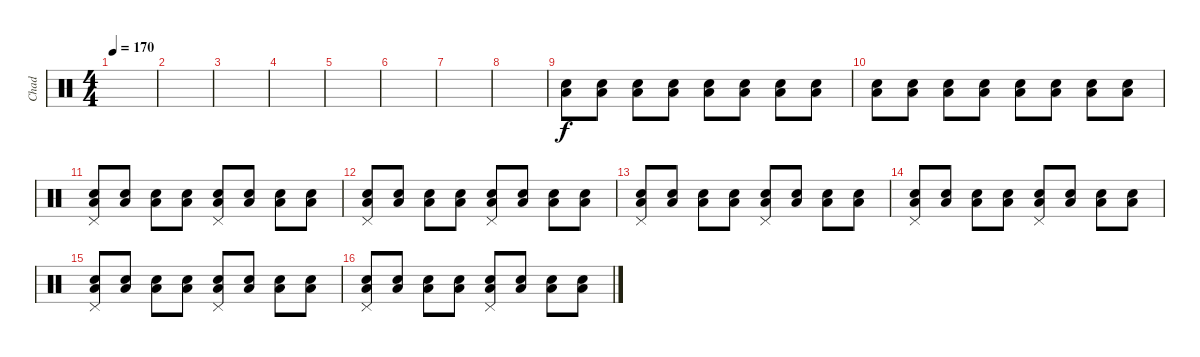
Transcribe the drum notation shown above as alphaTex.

\track ("Chad" "Chad") {instrument percussion}
\staff {score}
\articulation defaults
\ts (4 4)
\tempo 170
\clef neutral
\ks c
|
|
|
|
|
|
|
|
("Snare (hit) 2" "Low Tom (hit)").8{volume 4} ("Snare (hit) 2" "Low Tom (hit)").8 ("Snare (hit) 2" "Low Tom (hit)").8 ("Snare (hit) 2" "Low Tom (hit)").8 ("Snare (hit) 2" "Low Tom (hit)").8 ("Snare (hit) 2" "Low Tom (hit)").8 ("Snare (hit) 2" "Low Tom (hit)").8 ("Snare (hit) 2" "Low Tom (hit)").8 |
("Snare (hit) 2" "Low Tom (hit)").8 ("Snare (hit) 2" "Low Tom (hit)").8 ("Snare (hit) 2" "Low Tom (hit)").8 ("Snare (hit) 2" "Low Tom (hit)").8 ("Snare (hit) 2" "Low Tom (hit)").8 ("Snare (hit) 2" "Low Tom (hit)").8 ("Snare (hit) 2" "Low Tom (hit)").8 ("Snare (hit) 2" "Low Tom (hit)").8 |
("Pedal Hi-Hat (hit)" "Snare (hit) 2" "Low Tom (hit)").8 ("Snare (hit) 2" "Low Tom (hit)").8 ("Snare (hit) 2" "Low Tom (hit)").8 ("Snare (hit) 2" "Low Tom (hit)").8 ("Pedal Hi-Hat (hit)" "Snare (hit) 2" "Low Tom (hit)").8 ("Snare (hit) 2" "Low Tom (hit)").8 ("Snare (hit) 2" "Low Tom (hit)").8 ("Snare (hit) 2" "Low Tom (hit)").8 |
("Pedal Hi-Hat (hit)" "Snare (hit) 2" "Low Tom (hit)").8 ("Snare (hit) 2" "Low Tom (hit)").8 ("Snare (hit) 2" "Low Tom (hit)").8 ("Snare (hit) 2" "Low Tom (hit)").8 ("Pedal Hi-Hat (hit)" "Snare (hit) 2" "Low Tom (hit)").8 ("Snare (hit) 2" "Low Tom (hit)").8 ("Snare (hit) 2" "Low Tom (hit)").8 ("Snare (hit) 2" "Low Tom (hit)").8 |
("Pedal Hi-Hat (hit)" "Snare (hit) 2" "Low Tom (hit)").8 ("Snare (hit) 2" "Low Tom (hit)").8 ("Snare (hit) 2" "Low Tom (hit)").8 ("Snare (hit) 2" "Low Tom (hit)").8 ("Pedal Hi-Hat (hit)" "Snare (hit) 2" "Low Tom (hit)").8 ("Snare (hit) 2" "Low Tom (hit)").8 ("Snare (hit) 2" "Low Tom (hit)").8 ("Snare (hit) 2" "Low Tom (hit)").8 |
("Pedal Hi-Hat (hit)" "Snare (hit) 2" "Low Tom (hit)").8 ("Snare (hit) 2" "Low Tom (hit)").8 ("Snare (hit) 2" "Low Tom (hit)").8 ("Snare (hit) 2" "Low Tom (hit)").8 ("Pedal Hi-Hat (hit)" "Snare (hit) 2" "Low Tom (hit)").8 ("Snare (hit) 2" "Low Tom (hit)").8 ("Snare (hit) 2" "Low Tom (hit)").8 ("Snare (hit) 2" "Low Tom (hit)").8 |
("Pedal Hi-Hat (hit)" "Snare (hit) 2" "Low Tom (hit)").8 ("Snare (hit) 2" "Low Tom (hit)").8 ("Snare (hit) 2" "Low Tom (hit)").8 ("Snare (hit) 2" "Low Tom (hit)").8 ("Pedal Hi-Hat (hit)" "Snare (hit) 2" "Low Tom (hit)").8 ("Snare (hit) 2" "Low Tom (hit)").8 ("Snare (hit) 2" "Low Tom (hit)").8 ("Snare (hit) 2" "Low Tom (hit)").8 |
("Pedal Hi-Hat (hit)" "Snare (hit) 2" "Low Tom (hit)").8 ("Snare (hit) 2" "Low Tom (hit)").8 ("Snare (hit) 2" "Low Tom (hit)").8 ("Snare (hit) 2" "Low Tom (hit)").8 ("Pedal Hi-Hat (hit)" "Snare (hit) 2" "Low Tom (hit)").8 ("Snare (hit) 2" "Low Tom (hit)").8 ("Snare (hit) 2" "Low Tom (hit)").8 ("Snare (hit) 2" "Low Tom (hit)").8
